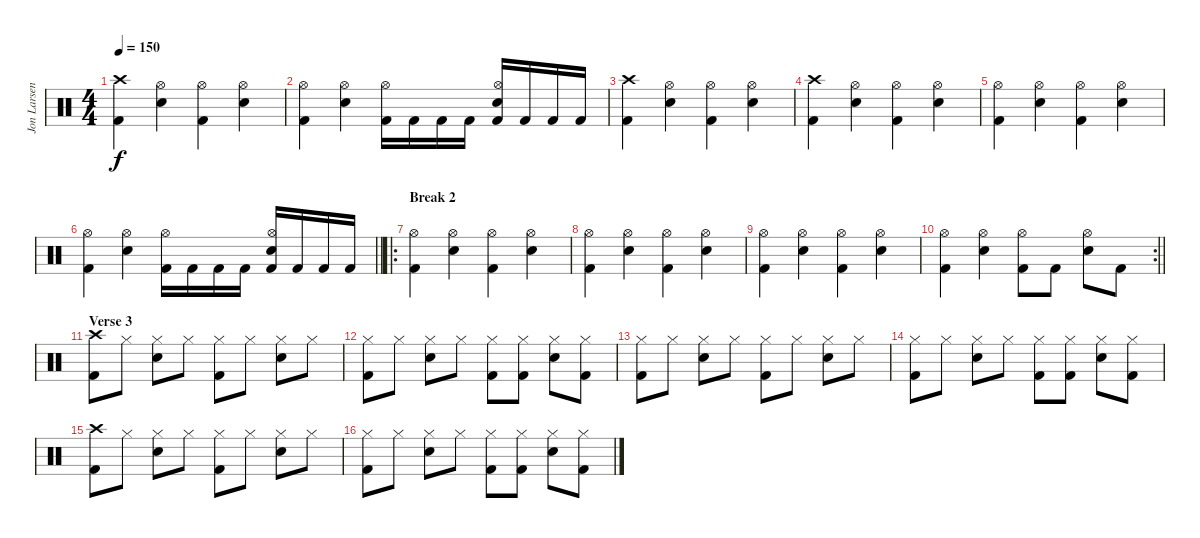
\track ("Jon Larsen" "Jon Larsen") {instrument percussion bank 10}
\staff {score}
\articulation defaults
\ts (4 4)
\tempo 150
\clef neutral
\ks c
("Crash high (hit)" "Kick (hit) 2").4{dy f} ("Hi-Hat (open)" "Electric Snare (hit)").4 ("Hi-Hat (open)" "Kick (hit) 2").4 ("Hi-Hat (open)" "Electric Snare (hit)").4 |
("Hi-Hat (open)" "Kick (hit) 2").4 ("Hi-Hat (open)" "Electric Snare (hit)").4 ("Hi-Hat (open)" "Kick (hit) 2").16 "Kick (hit) 2".16 "Kick (hit) 2".16 "Kick (hit) 2".16 ("Hi-Hat (open)" "Electric Snare (hit)" "Kick (hit) 2").16 "Kick (hit) 2".16 "Kick (hit) 2".16 "Kick (hit) 2".16 |
("Crash high (hit)" "Kick (hit) 2").4 ("Hi-Hat (open)" "Electric Snare (hit)").4 ("Hi-Hat (open)" "Kick (hit) 2").4 ("Hi-Hat (open)" "Electric Snare (hit)").4 |
("Crash high (hit)" "Kick (hit) 2").4 ("Hi-Hat (open)" "Electric Snare (hit)").4 ("Hi-Hat (open)" "Kick (hit) 2").4 ("Hi-Hat (open)" "Electric Snare (hit)").4 |
("Hi-Hat (open)" "Kick (hit) 2").4 ("Hi-Hat (open)" "Electric Snare (hit)").4 ("Hi-Hat (open)" "Kick (hit) 2").4 ("Hi-Hat (open)" "Electric Snare (hit)").4 |
\barLineRight lightlight
("Hi-Hat (open)" "Kick (hit) 2").4 ("Hi-Hat (open)" "Electric Snare (hit)").4 ("Hi-Hat (open)" "Kick (hit) 2").16 "Kick (hit) 2".16 "Kick (hit) 2".16 "Kick (hit) 2".16 ("Hi-Hat (open)" "Electric Snare (hit)" "Kick (hit) 2").16 "Kick (hit) 2".16 "Kick (hit) 2".16 "Kick (hit) 2".16 |
\ro
\section ("" "Break 2")
("Hi-Hat (open)" "Kick (hit) 2").4 ("Hi-Hat (open)" "Electric Snare (hit)").4 ("Hi-Hat (open)" "Kick (hit) 2").4 ("Hi-Hat (open)" "Electric Snare (hit)").4 |
("Hi-Hat (open)" "Kick (hit) 2").4 ("Hi-Hat (open)" "Electric Snare (hit)").4 ("Hi-Hat (open)" "Kick (hit) 2").4 ("Hi-Hat (open)" "Electric Snare (hit)").4 |
("Hi-Hat (open)" "Kick (hit) 2").4 ("Hi-Hat (open)" "Electric Snare (hit)").4 ("Hi-Hat (open)" "Kick (hit) 2").4 ("Hi-Hat (open)" "Electric Snare (hit)").4 |
\rc 2
\barLineRight lightlight
("Hi-Hat (open)" "Kick (hit) 2").4 ("Hi-Hat (open)" "Electric Snare (hit)").4 ("Hi-Hat (open)" "Kick (hit) 2").8 "Kick (hit) 2".8 ("Hi-Hat (open)" "Electric Snare (hit)").8 "Kick (hit) 2".8 |
\section ("" "Verse 3")
("Crash high (hit)" "Kick (hit) 2").8 "Hi-Hat (closed)".8 ("Hi-Hat (closed)" "Electric Snare (hit)").8 "Hi-Hat (closed)".8 ("Hi-Hat (closed)" "Kick (hit) 2").8 "Hi-Hat (closed)".8 ("Hi-Hat (closed)" "Electric Snare (hit)").8 "Hi-Hat (closed)".8 |
("Hi-Hat (closed)" "Kick (hit) 2").8 "Hi-Hat (closed)".8 ("Hi-Hat (closed)" "Electric Snare (hit)").8 "Hi-Hat (closed)".8 ("Hi-Hat (closed)" "Kick (hit) 2").8 ("Hi-Hat (closed)" "Kick (hit) 2").8 ("Hi-Hat (closed)" "Electric Snare (hit)").8 ("Hi-Hat (closed)" "Kick (hit) 2").8 |
("Hi-Hat (closed)" "Kick (hit) 2").8 "Hi-Hat (closed)".8 ("Hi-Hat (closed)" "Electric Snare (hit)").8 "Hi-Hat (closed)".8 ("Hi-Hat (closed)" "Kick (hit) 2").8 "Hi-Hat (closed)".8 ("Hi-Hat (closed)" "Electric Snare (hit)").8 "Hi-Hat (closed)".8 |
("Hi-Hat (closed)" "Kick (hit) 2").8 "Hi-Hat (closed)".8 ("Hi-Hat (closed)" "Electric Snare (hit)").8 "Hi-Hat (closed)".8 ("Hi-Hat (closed)" "Kick (hit) 2").8 ("Hi-Hat (closed)" "Kick (hit) 2").8 ("Hi-Hat (closed)" "Electric Snare (hit)").8 ("Hi-Hat (closed)" "Kick (hit) 2").8 |
("Crash high (hit)" "Kick (hit) 2").8 "Hi-Hat (closed)".8 ("Hi-Hat (closed)" "Electric Snare (hit)").8 "Hi-Hat (closed)".8 ("Hi-Hat (closed)" "Kick (hit) 2").8 "Hi-Hat (closed)".8 ("Hi-Hat (closed)" "Electric Snare (hit)").8 "Hi-Hat (closed)".8 |
("Hi-Hat (closed)" "Kick (hit) 2").8 "Hi-Hat (closed)".8 ("Hi-Hat (closed)" "Electric Snare (hit)").8 "Hi-Hat (closed)".8 ("Hi-Hat (closed)" "Kick (hit) 2").8 ("Hi-Hat (closed)" "Kick (hit) 2").8 ("Hi-Hat (closed)" "Electric Snare (hit)").8 ("Hi-Hat (closed)" "Kick (hit) 2").8
